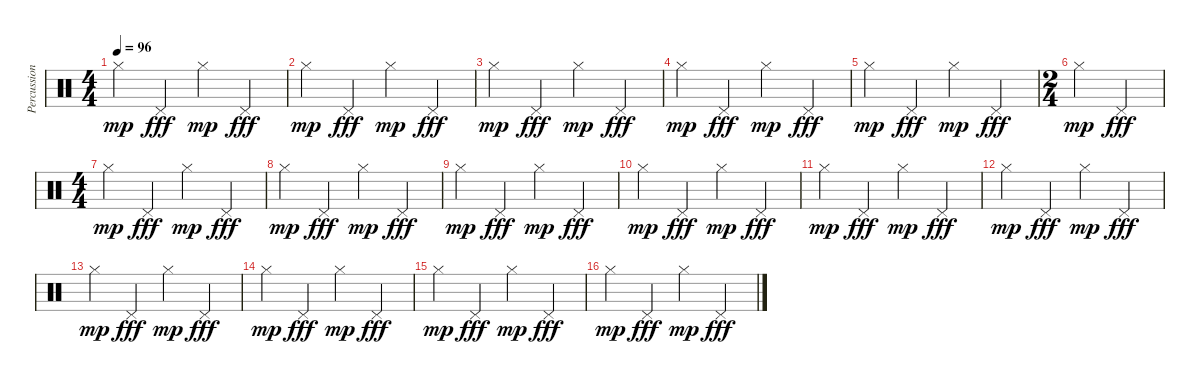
\track ("Percussions" "Percussion") {instrument percussion}
\staff {score}
\articulation defaults
\ts (4 4)
\tempo 96
\clef neutral
\ks c "Hi-Hat (closed)".4{dy mp} "Pedal Hi-Hat (hit)".4{dy fff} "Hi-Hat (closed)".4{dy mp} "Pedal Hi-Hat (hit)".4{dy fff}
|
"Hi-Hat (closed)".4{dy mp} "Pedal Hi-Hat (hit)".4{dy fff} "Hi-Hat (closed)".4{dy mp} "Pedal Hi-Hat (hit)".4{dy fff} |
"Hi-Hat (closed)".4{dy mp} "Pedal Hi-Hat (hit)".4{dy fff} "Hi-Hat (closed)".4{dy mp} "Pedal Hi-Hat (hit)".4{dy fff} |
"Hi-Hat (closed)".4{dy mp} "Pedal Hi-Hat (hit)".4{dy fff} "Hi-Hat (closed)".4{dy mp} "Pedal Hi-Hat (hit)".4{dy fff} |
"Hi-Hat (closed)".4{dy mp} "Pedal Hi-Hat (hit)".4{dy fff} "Hi-Hat (closed)".4{dy mp} "Pedal Hi-Hat (hit)".4{dy fff} |
\ts (2 4)
"Hi-Hat (closed)".4{dy mp} "Pedal Hi-Hat (hit)".4{dy fff} |
\ts (4 4)
"Hi-Hat (closed)".4{dy mp} "Pedal Hi-Hat (hit)".4{dy fff} "Hi-Hat (closed)".4{dy mp} "Pedal Hi-Hat (hit)".4{dy fff} |
"Hi-Hat (closed)".4{dy mp} "Pedal Hi-Hat (hit)".4{dy fff} "Hi-Hat (closed)".4{dy mp} "Pedal Hi-Hat (hit)".4{dy fff} |
"Hi-Hat (closed)".4{dy mp} "Pedal Hi-Hat (hit)".4{dy fff} "Hi-Hat (closed)".4{dy mp} "Pedal Hi-Hat (hit)".4{dy fff} |
"Hi-Hat (closed)".4{dy mp} "Pedal Hi-Hat (hit)".4{dy fff} "Hi-Hat (closed)".4{dy mp} "Pedal Hi-Hat (hit)".4{dy fff} |
"Hi-Hat (closed)".4{dy mp} "Pedal Hi-Hat (hit)".4{dy fff} "Hi-Hat (closed)".4{dy mp} "Pedal Hi-Hat (hit)".4{dy fff} |
"Hi-Hat (closed)".4{dy mp} "Pedal Hi-Hat (hit)".4{dy fff} "Hi-Hat (closed)".4{dy mp} "Pedal Hi-Hat (hit)".4{dy fff} |
"Hi-Hat (closed)".4{dy mp} "Pedal Hi-Hat (hit)".4{dy fff} "Hi-Hat (closed)".4{dy mp} "Pedal Hi-Hat (hit)".4{dy fff} |
"Hi-Hat (closed)".4{dy mp} "Pedal Hi-Hat (hit)".4{dy fff} "Hi-Hat (closed)".4{dy mp} "Pedal Hi-Hat (hit)".4{dy fff} |
"Hi-Hat (closed)".4{dy mp} "Pedal Hi-Hat (hit)".4{dy fff} "Hi-Hat (closed)".4{dy mp} "Pedal Hi-Hat (hit)".4{dy fff} |
"Hi-Hat (closed)".4{dy mp} "Pedal Hi-Hat (hit)".4{dy fff} "Hi-Hat (closed)".4{dy mp} "Pedal Hi-Hat (hit)".4{dy fff}
